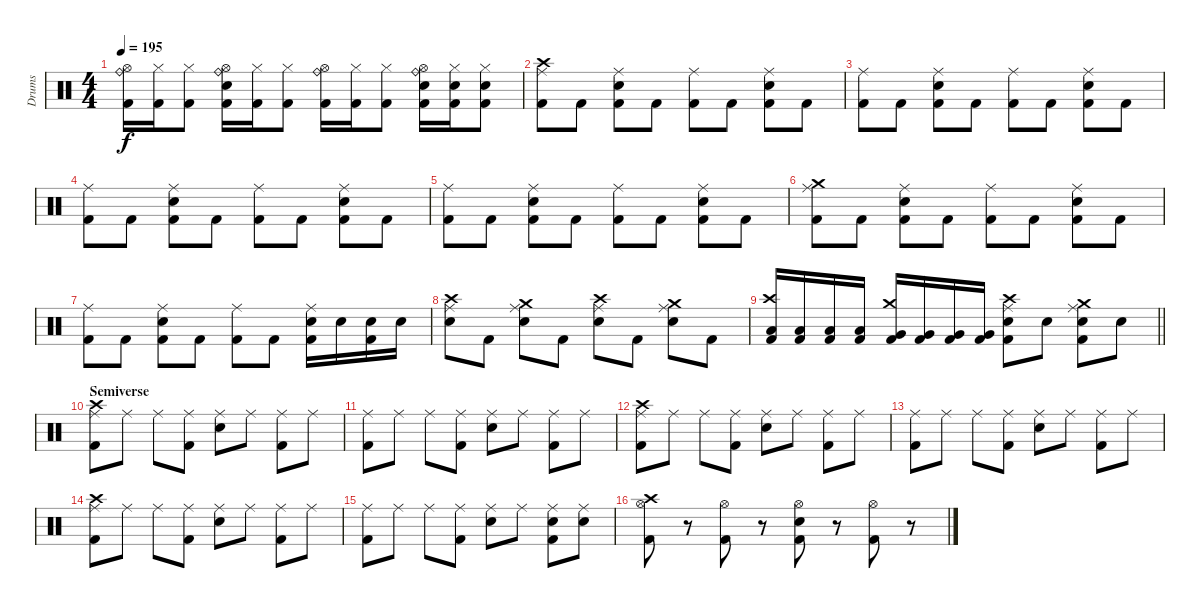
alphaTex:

\track ("Drums" "Drums") {instrument percussion}
\staff {score}
\articulation defaults
\ts (4 4)
\tempo 195
\clef neutral
\ks c
("Ride (bell)" "Hi-Hat (open)" "Kick (hit) 2").16{dy f} ("Hi-Hat (closed)" "Kick (hit) 2").16 ("Hi-Hat (closed)" "Kick (hit) 2").8 ("Ride (bell)" "Hi-Hat (open)" "Snare (hit) 2" "Kick (hit) 2").16 ("Hi-Hat (closed)" "Kick (hit) 2").16 ("Hi-Hat (closed)" "Kick (hit) 2").8 ("Ride (bell)" "Hi-Hat (open)" "Kick (hit) 2").16 ("Hi-Hat (closed)" "Kick (hit) 2").16 ("Hi-Hat (closed)" "Kick (hit) 2").8 ("Ride (bell)" "Hi-Hat (open)" "Snare (hit) 2" "Kick (hit) 2").16 ("Hi-Hat (closed)" "Snare (hit) 2" "Kick (hit) 2").16 ("Hi-Hat (closed)" "Snare (hit) 2" "Kick (hit) 2").8 |
("Crash high (hit)" "Ride (middle)" "Kick (hit) 2").8 "Kick (hit) 2".8 ("Ride (middle)" "Snare (hit) 2" "Kick (hit) 2").8 "Kick (hit) 2".8 ("Ride (middle)" "Kick (hit) 2").8 "Kick (hit) 2".8 ("Ride (middle)" "Snare (hit) 2" "Kick (hit) 2").8 "Kick (hit) 2".8 |
("Ride (middle)" "Kick (hit) 2").8 "Kick (hit) 2".8 ("Ride (middle)" "Snare (hit) 2" "Kick (hit) 2").8 "Kick (hit) 2".8 ("Ride (middle)" "Kick (hit) 2").8 "Kick (hit) 2".8 ("Ride (middle)" "Snare (hit) 2" "Kick (hit) 2").8 "Kick (hit) 2".8 |
("Ride (middle)" "Kick (hit) 2").8 "Kick (hit) 2".8 ("Ride (middle)" "Snare (hit) 2" "Kick (hit) 2").8 "Kick (hit) 2".8 ("Ride (middle)" "Kick (hit) 2").8 "Kick (hit) 2".8 ("Ride (middle)" "Snare (hit) 2" "Kick (hit) 2").8 "Kick (hit) 2".8 |
("Ride (middle)" "Kick (hit) 2").8 "Kick (hit) 2".8 ("Ride (middle)" "Snare (hit) 2" "Kick (hit) 2").8 "Kick (hit) 2".8 ("Ride (middle)" "Kick (hit) 2").8 "Kick (hit) 2".8 ("Ride (middle)" "Snare (hit) 2" "Kick (hit) 2").8 "Kick (hit) 2".8 |
("Crash medium (hit)" "Ride (middle)" "Kick (hit) 2").8 "Kick (hit) 2".8 ("Ride (middle)" "Snare (hit) 2" "Kick (hit) 2").8 "Kick (hit) 2".8 ("Ride (middle)" "Kick (hit) 2").8 "Kick (hit) 2".8 ("Ride (middle)" "Snare (hit) 2" "Kick (hit) 2").8 "Kick (hit) 2".8 |
("Ride (middle)" "Kick (hit) 2").8 "Kick (hit) 2".8 ("Ride (middle)" "Snare (hit) 2" "Kick (hit) 2").8 "Kick (hit) 2".8 ("Ride (middle)" "Kick (hit) 2").8 "Kick (hit) 2".8 ("Ride (middle)" "Snare (hit) 2" "Kick (hit) 2").16 "Snare (hit) 2".16 ("Snare (hit) 2" "Kick (hit) 2").16 "Snare (hit) 2".16 |
("Crash high (hit)" "Ride (middle)" "Snare (hit) 2").8 "Kick (hit) 2".8 ("Crash medium (hit)" "Ride (middle)" "Snare (hit) 2").8 "Kick (hit) 2".8 ("Crash high (hit)" "Ride (middle)" "Snare (hit) 2").8 "Kick (hit) 2".8 ("Crash medium (hit)" "Ride (middle)" "Snare (hit) 2").8 "Kick (hit) 2".8 |
\barLineRight lightlight
("Crash high (hit)" "Low Tom (hit)" "Kick (hit) 2").16 ("Low Tom (hit)" "Kick (hit) 2").16 ("Low Tom (hit)" "Kick (hit) 2").16 ("Low Tom (hit)" "Kick (hit) 2").16 ("Crash medium (hit)" "Very Low Tom (hit)" "Kick (hit) 2").16 ("Very Low Tom (hit)" "Kick (hit) 2").16 ("Very Low Tom (hit)" "Kick (hit) 2").16 ("Very Low Tom (hit)" "Kick (hit) 2").16 ("Crash high (hit)" "Ride (middle)" "Snare (hit) 2" "Kick (hit) 2").8 "Snare (hit) 2".8 ("Crash medium (hit)" "Ride (middle)" "Snare (hit) 2" "Kick (hit) 2").8 "Snare (hit) 2".8 |
\section ("" "Semiverse")
("Crash high (hit)" "Ride (middle)" "Kick (hit) 2").8 "Ride (middle)".8 "Ride (middle)".8 ("Ride (middle)" "Kick (hit) 2").8 ("Ride (middle)" "Snare (hit) 2").8 "Ride (middle)".8 ("Ride (middle)" "Kick (hit) 2").8 "Ride (middle)".8 |
("Ride (middle)" "Kick (hit) 2").8 "Ride (middle)".8 "Ride (middle)".8 ("Ride (middle)" "Kick (hit) 2").8 ("Ride (middle)" "Snare (hit) 2").8 "Ride (middle)".8 ("Ride (middle)" "Kick (hit) 2").8 "Ride (middle)".8 |
("Crash high (hit)" "Ride (middle)" "Kick (hit) 2").8 "Ride (middle)".8 "Ride (middle)".8 ("Ride (middle)" "Kick (hit) 2").8 ("Ride (middle)" "Snare (hit) 2").8 "Ride (middle)".8 ("Ride (middle)" "Kick (hit) 2").8 "Ride (middle)".8 |
("Ride (middle)" "Kick (hit) 2").8 "Ride (middle)".8 "Ride (middle)".8 ("Ride (middle)" "Kick (hit) 2").8 ("Ride (middle)" "Snare (hit) 2").8 "Ride (middle)".8 ("Ride (middle)" "Kick (hit) 2").8 "Ride (middle)".8 |
("Crash high (hit)" "Ride (middle)" "Kick (hit) 2").8 "Ride (middle)".8 "Ride (middle)".8 ("Ride (middle)" "Kick (hit) 2").8 ("Ride (middle)" "Snare (hit) 2").8 "Ride (middle)".8 ("Ride (middle)" "Kick (hit) 2").8 "Ride (middle)".8 |
("Ride (middle)" "Kick (hit) 2").8 "Ride (middle)".8 "Ride (middle)".8 ("Ride (middle)" "Kick (hit) 2").8 ("Ride (middle)" "Snare (hit) 2").8 "Ride (middle)".8 ("Ride (middle)" "Snare (hit) 2" "Kick (hit) 2").8 ("Ride (middle)" "Snare (hit) 2").8 |
("Crash high (hit)" "Hi-Hat (open)" "Kick (hit) 2").8 r.8 ("Hi-Hat (open)" "Kick (hit) 2").8 r.8 ("Hi-Hat (open)" "Snare (hit) 2" "Kick (hit) 2").8 r.8 ("Hi-Hat (open)" "Kick (hit) 2").8 r.8
